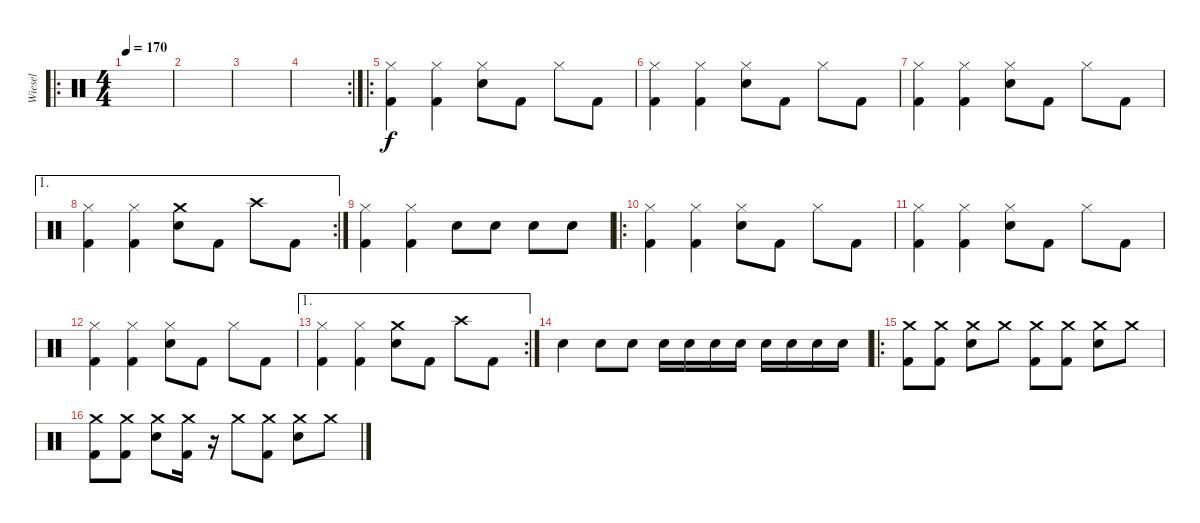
\track ("Wiesel" "Wiesel") {instrument percussion}
\staff {score}
\articulation defaults
\ro
\ts (4 4)
\tempo 170
\clef neutral
\ks c
|
|
|
\rc 2
|
\ro
("Hi-Hat (closed)" "Kick (hit) 2").4 ("Hi-Hat (closed)" "Kick (hit) 2").4 ("Hi-Hat (closed)" "Snare (hit) 2").8 "Kick (hit) 2".8 "Hi-Hat (closed)".8 "Kick (hit) 2".8 |
("Hi-Hat (closed)" "Kick (hit) 2").4 ("Hi-Hat (closed)" "Kick (hit) 2").4 ("Hi-Hat (closed)" "Snare (hit) 2").8 "Kick (hit) 2".8 "Hi-Hat (closed)".8 "Kick (hit) 2".8 |
("Hi-Hat (closed)" "Kick (hit) 2").4 ("Hi-Hat (closed)" "Kick (hit) 2").4 ("Hi-Hat (closed)" "Snare (hit) 2").8 "Kick (hit) 2".8 "Hi-Hat (closed)".8 "Kick (hit) 2".8 |
\ae 1
\rc 2
("Hi-Hat (closed)" "Kick (hit) 2").4 ("Hi-Hat (closed)" "Kick (hit) 2").4 ("Crash medium (hit)" "Snare (hit) 2").8 "Kick (hit) 2".8 "Crash high (hit)".8 "Kick (hit) 2".8 |
("Hi-Hat (closed)" "Kick (hit) 2").4 ("Hi-Hat (closed)" "Kick (hit) 2").4 "Snare (hit) 2".8 "Snare (hit) 2".8 "Snare (hit) 2".8 "Snare (hit) 2".8 |
\ro
("Hi-Hat (closed)" "Kick (hit) 2").4 ("Hi-Hat (closed)" "Kick (hit) 2").4 ("Hi-Hat (closed)" "Snare (hit) 2").8 "Kick (hit) 2".8 "Hi-Hat (closed)".8 "Kick (hit) 2".8 |
("Hi-Hat (closed)" "Kick (hit) 2").4 ("Hi-Hat (closed)" "Kick (hit) 2").4 ("Hi-Hat (closed)" "Snare (hit) 2").8 "Kick (hit) 2".8 "Hi-Hat (closed)".8 "Kick (hit) 2".8 |
("Hi-Hat (closed)" "Kick (hit) 2").4 ("Hi-Hat (closed)" "Kick (hit) 2").4 ("Hi-Hat (closed)" "Snare (hit) 2").8 "Kick (hit) 2".8 "Hi-Hat (closed)".8 "Kick (hit) 2".8 |
\ae 1
\rc 2
("Hi-Hat (closed)" "Kick (hit) 2").4 ("Hi-Hat (closed)" "Kick (hit) 2").4 ("Crash medium (hit)" "Snare (hit) 2").8 "Kick (hit) 2".8 "Crash high (hit)".8 "Kick (hit) 2".8 |
"Snare (hit) 2".4 "Snare (hit) 2".8 "Snare (hit) 2".8 "Snare (hit) 2".16 "Snare (hit) 2".16 "Snare (hit) 2".16 "Snare (hit) 2".16 "Snare (hit) 2".16 "Snare (hit) 2".16 "Snare (hit) 2".16 "Snare (hit) 2".16 |
\ro
("Crash medium (hit)" "Kick (hit) 2").8 ("Crash medium (hit)" "Kick (hit) 2").8 ("Crash medium (hit)" "Snare (hit) 2").8 "Crash medium (hit)".8 ("Crash medium (hit)" "Kick (hit) 2").8 ("Crash medium (hit)" "Kick (hit) 2").8 ("Crash medium (hit)" "Snare (hit) 2").8 "Crash medium (hit)".8 |
("Crash medium (hit)" "Kick (hit) 2").8 ("Crash medium (hit)" "Kick (hit) 2").8 ("Crash medium (hit)" "Snare (hit) 2").8 ("Crash medium (hit)" "Kick (hit) 2").16 r.16 "Crash medium (hit)".8 ("Crash medium (hit)" "Kick (hit) 2").8 ("Crash medium (hit)" "Snare (hit) 2").8 "Crash medium (hit)".8
